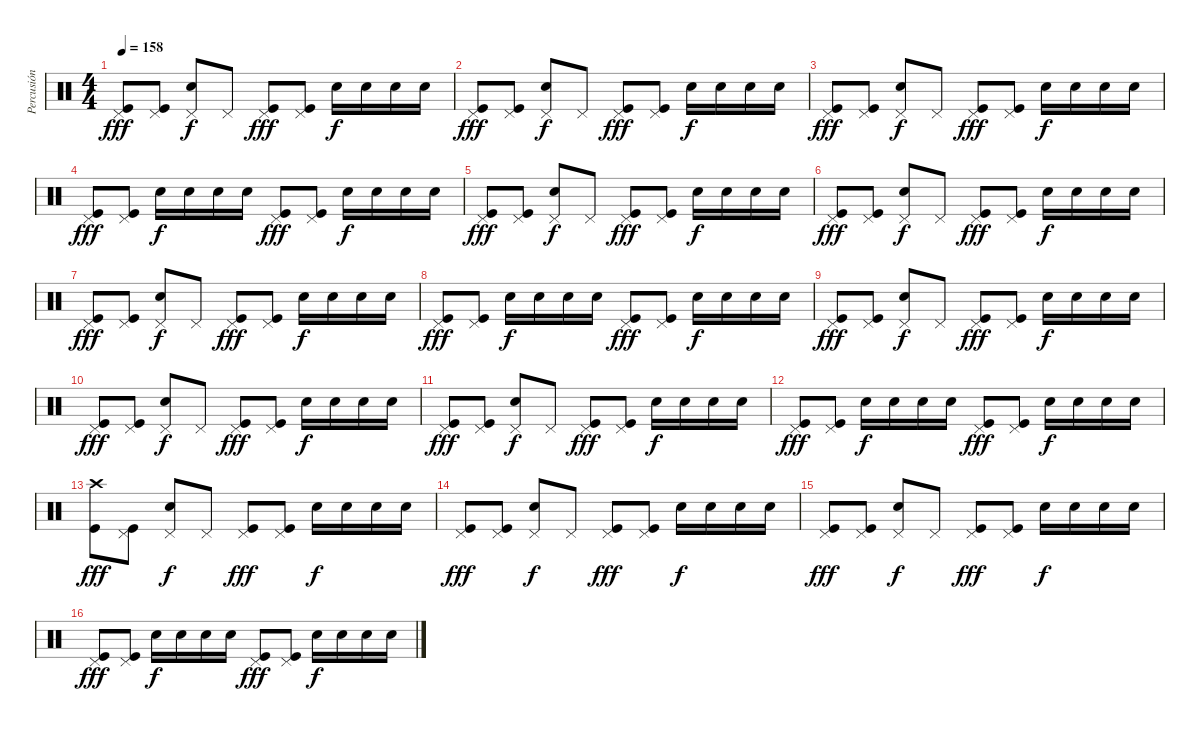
\track ("Percusión" "Percusión") {instrument percussion}
\staff {score}
\articulation defaults
\ts (4 4)
\tempo 158
\clef neutral
\ks c
("Pedal Hi-Hat (hit)" "Kick (hit)").8{dy fff} ("Pedal Hi-Hat (hit)" "Kick (hit)").8 ("Pedal Hi-Hat (hit)" "Electric Snare (hit)").8{dy f} "Pedal Hi-Hat (hit)".8 ("Pedal Hi-Hat (hit)" "Kick (hit)").8{dy fff} ("Pedal Hi-Hat (hit)" "Kick (hit)").8 "Electric Snare (hit)".16{dy f} "Electric Snare (hit)".16 "Electric Snare (hit)".16 "Electric Snare (hit)".16 |
("Pedal Hi-Hat (hit)" "Kick (hit)").8{dy fff} ("Pedal Hi-Hat (hit)" "Kick (hit)").8 ("Pedal Hi-Hat (hit)" "Electric Snare (hit)").8{dy f} "Pedal Hi-Hat (hit)".8 ("Pedal Hi-Hat (hit)" "Kick (hit)").8{dy fff} ("Pedal Hi-Hat (hit)" "Kick (hit)").8 "Electric Snare (hit)".16{dy f} "Electric Snare (hit)".16 "Electric Snare (hit)".16 "Electric Snare (hit)".16 |
("Pedal Hi-Hat (hit)" "Kick (hit)").8{dy fff} ("Pedal Hi-Hat (hit)" "Kick (hit)").8 ("Pedal Hi-Hat (hit)" "Electric Snare (hit)").8{dy f} "Pedal Hi-Hat (hit)".8 ("Pedal Hi-Hat (hit)" "Kick (hit)").8{dy fff} ("Pedal Hi-Hat (hit)" "Kick (hit)").8 "Electric Snare (hit)".16{dy f} "Electric Snare (hit)".16 "Electric Snare (hit)".16 "Electric Snare (hit)".16 |
("Pedal Hi-Hat (hit)" "Kick (hit)").8{dy fff} ("Pedal Hi-Hat (hit)" "Kick (hit)").8 "Electric Snare (hit)".16{dy f} "Electric Snare (hit)".16 "Electric Snare (hit)".16 "Electric Snare (hit)".16 ("Pedal Hi-Hat (hit)" "Kick (hit)").8{dy fff} ("Pedal Hi-Hat (hit)" "Kick (hit)").8 "Electric Snare (hit)".16{dy f} "Electric Snare (hit)".16 "Electric Snare (hit)".16 "Electric Snare (hit)".16 |
("Pedal Hi-Hat (hit)" "Kick (hit)").8{dy fff} ("Pedal Hi-Hat (hit)" "Kick (hit)").8 ("Pedal Hi-Hat (hit)" "Electric Snare (hit)").8{dy f} "Pedal Hi-Hat (hit)".8 ("Pedal Hi-Hat (hit)" "Kick (hit)").8{dy fff} ("Pedal Hi-Hat (hit)" "Kick (hit)").8 "Electric Snare (hit)".16{dy f} "Electric Snare (hit)".16 "Electric Snare (hit)".16 "Electric Snare (hit)".16 |
("Pedal Hi-Hat (hit)" "Kick (hit)").8{dy fff} ("Pedal Hi-Hat (hit)" "Kick (hit)").8 ("Pedal Hi-Hat (hit)" "Electric Snare (hit)").8{dy f} "Pedal Hi-Hat (hit)".8 ("Pedal Hi-Hat (hit)" "Kick (hit)").8{dy fff} ("Pedal Hi-Hat (hit)" "Kick (hit)").8 "Electric Snare (hit)".16{dy f} "Electric Snare (hit)".16 "Electric Snare (hit)".16 "Electric Snare (hit)".16 |
("Pedal Hi-Hat (hit)" "Kick (hit)").8{dy fff} ("Pedal Hi-Hat (hit)" "Kick (hit)").8 ("Pedal Hi-Hat (hit)" "Electric Snare (hit)").8{dy f} "Pedal Hi-Hat (hit)".8 ("Pedal Hi-Hat (hit)" "Kick (hit)").8{dy fff} ("Pedal Hi-Hat (hit)" "Kick (hit)").8 "Electric Snare (hit)".16{dy f} "Electric Snare (hit)".16 "Electric Snare (hit)".16 "Electric Snare (hit)".16 |
("Pedal Hi-Hat (hit)" "Kick (hit)").8{dy fff} ("Pedal Hi-Hat (hit)" "Kick (hit)").8 "Electric Snare (hit)".16{dy f} "Electric Snare (hit)".16 "Electric Snare (hit)".16 "Electric Snare (hit)".16 ("Pedal Hi-Hat (hit)" "Kick (hit)").8{dy fff} ("Pedal Hi-Hat (hit)" "Kick (hit)").8 "Electric Snare (hit)".16{dy f} "Electric Snare (hit)".16 "Electric Snare (hit)".16 "Electric Snare (hit)".16 |
("Pedal Hi-Hat (hit)" "Kick (hit)").8{dy fff} ("Pedal Hi-Hat (hit)" "Kick (hit)").8 ("Pedal Hi-Hat (hit)" "Electric Snare (hit)").8{dy f} "Pedal Hi-Hat (hit)".8 ("Pedal Hi-Hat (hit)" "Kick (hit)").8{dy fff} ("Pedal Hi-Hat (hit)" "Kick (hit)").8 "Electric Snare (hit)".16{dy f} "Electric Snare (hit)".16 "Electric Snare (hit)".16 "Electric Snare (hit)".16 |
("Pedal Hi-Hat (hit)" "Kick (hit)").8{dy fff} ("Pedal Hi-Hat (hit)" "Kick (hit)").8 ("Pedal Hi-Hat (hit)" "Electric Snare (hit)").8{dy f} "Pedal Hi-Hat (hit)".8 ("Pedal Hi-Hat (hit)" "Kick (hit)").8{dy fff} ("Pedal Hi-Hat (hit)" "Kick (hit)").8 "Electric Snare (hit)".16{dy f} "Electric Snare (hit)".16 "Electric Snare (hit)".16 "Electric Snare (hit)".16 |
("Pedal Hi-Hat (hit)" "Kick (hit)").8{dy fff} ("Pedal Hi-Hat (hit)" "Kick (hit)").8 ("Pedal Hi-Hat (hit)" "Electric Snare (hit)").8{dy f} "Pedal Hi-Hat (hit)".8 ("Pedal Hi-Hat (hit)" "Kick (hit)").8{dy fff} ("Pedal Hi-Hat (hit)" "Kick (hit)").8 "Electric Snare (hit)".16{dy f} "Electric Snare (hit)".16 "Electric Snare (hit)".16 "Electric Snare (hit)".16 |
("Pedal Hi-Hat (hit)" "Kick (hit)").8{dy fff} ("Pedal Hi-Hat (hit)" "Kick (hit)").8 "Electric Snare (hit)".16{dy f} "Electric Snare (hit)".16 "Electric Snare (hit)".16 "Electric Snare (hit)".16 ("Pedal Hi-Hat (hit)" "Kick (hit)").8{dy fff} ("Pedal Hi-Hat (hit)" "Kick (hit)").8 "Electric Snare (hit)".16{dy f} "Electric Snare (hit)".16 "Electric Snare (hit)".16 "Electric Snare (hit)".16 |
("Crash high (hit)" "Kick (hit)").8{dy fff} ("Pedal Hi-Hat (hit)" "Kick (hit)").8 ("Pedal Hi-Hat (hit)" "Electric Snare (hit)").8{dy f} "Pedal Hi-Hat (hit)".8 ("Pedal Hi-Hat (hit)" "Kick (hit)").8{dy fff} ("Pedal Hi-Hat (hit)" "Kick (hit)").8 "Electric Snare (hit)".16{dy f} "Electric Snare (hit)".16 "Electric Snare (hit)".16 "Electric Snare (hit)".16 |
("Pedal Hi-Hat (hit)" "Kick (hit)").8{dy fff} ("Pedal Hi-Hat (hit)" "Kick (hit)").8 ("Pedal Hi-Hat (hit)" "Electric Snare (hit)").8{dy f} "Pedal Hi-Hat (hit)".8 ("Pedal Hi-Hat (hit)" "Kick (hit)").8{dy fff} ("Pedal Hi-Hat (hit)" "Kick (hit)").8 "Electric Snare (hit)".16{dy f} "Electric Snare (hit)".16 "Electric Snare (hit)".16 "Electric Snare (hit)".16 |
("Pedal Hi-Hat (hit)" "Kick (hit)").8{dy fff} ("Pedal Hi-Hat (hit)" "Kick (hit)").8 ("Pedal Hi-Hat (hit)" "Electric Snare (hit)").8{dy f} "Pedal Hi-Hat (hit)".8 ("Pedal Hi-Hat (hit)" "Kick (hit)").8{dy fff} ("Pedal Hi-Hat (hit)" "Kick (hit)").8 "Electric Snare (hit)".16{dy f} "Electric Snare (hit)".16 "Electric Snare (hit)".16 "Electric Snare (hit)".16 |
("Pedal Hi-Hat (hit)" "Kick (hit)").8{dy fff} ("Pedal Hi-Hat (hit)" "Kick (hit)").8 "Electric Snare (hit)".16{dy f} "Electric Snare (hit)".16 "Electric Snare (hit)".16 "Electric Snare (hit)".16 ("Pedal Hi-Hat (hit)" "Kick (hit)").8{dy fff} ("Pedal Hi-Hat (hit)" "Kick (hit)").8 "Electric Snare (hit)".16{dy f} "Electric Snare (hit)".16 "Electric Snare (hit)".16 "Electric Snare (hit)".16
